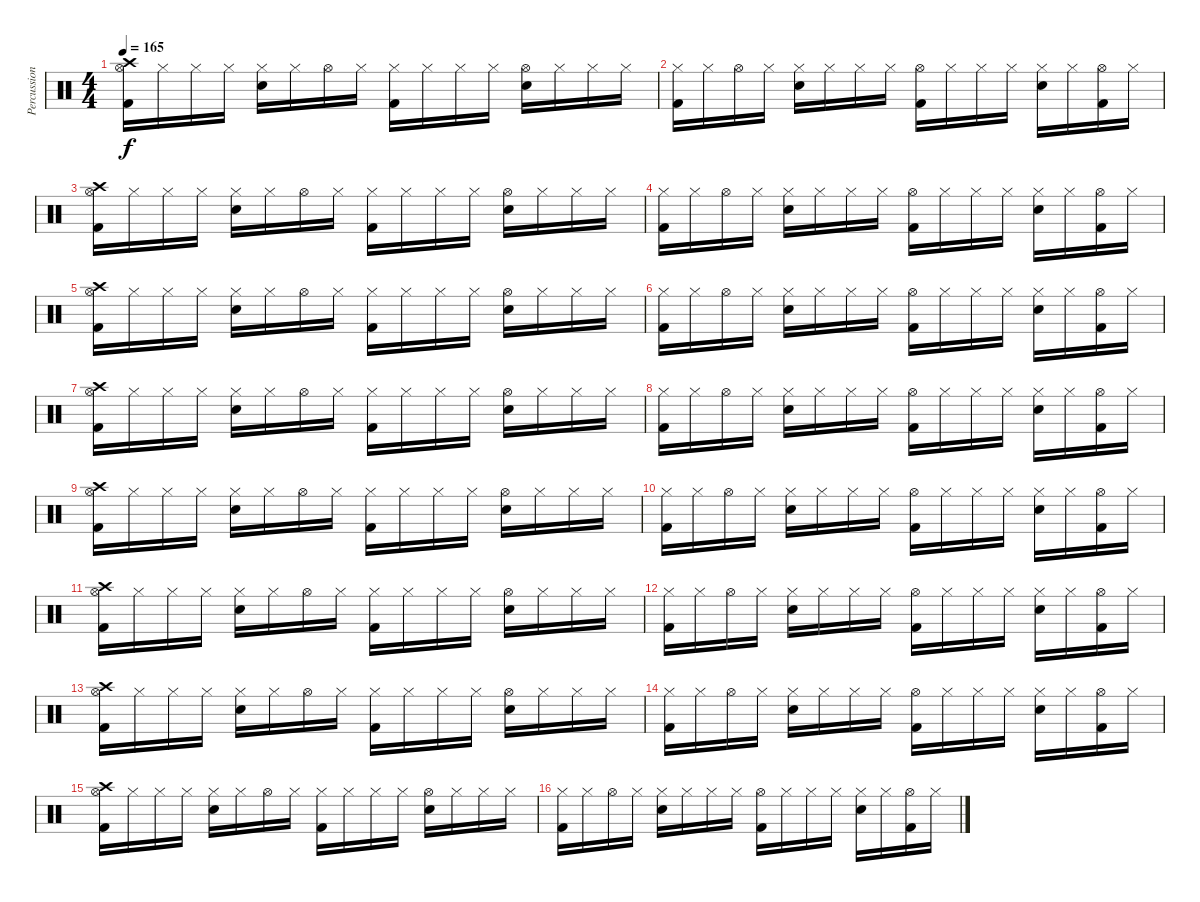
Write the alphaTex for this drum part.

\track ("Percussions" "Percussion") {instrument percussion}
\staff {score}
\articulation defaults
\ts (4 4)
\tempo 165
\clef neutral
\ks c
("Hi-Hat (open)" "Crash high (hit)" "Kick (hit) 2").16{dy f} "Hi-Hat (closed)".16 "Hi-Hat (closed)".16 "Hi-Hat (closed)".16 ("Hi-Hat (closed)" "Electric Snare (hit)").16 "Hi-Hat (closed)".16 "Hi-Hat (open)".16 "Hi-Hat (closed)".16 ("Hi-Hat (closed)" "Kick (hit) 2").16 "Hi-Hat (closed)".16 "Hi-Hat (closed)".16 "Hi-Hat (closed)".16 ("Hi-Hat (open)" "Electric Snare (hit)").16 "Hi-Hat (closed)".16 "Hi-Hat (closed)".16 "Hi-Hat (closed)".16 |
("Hi-Hat (closed)" "Kick (hit) 2").16 "Hi-Hat (closed)".16 "Hi-Hat (open)".16 "Hi-Hat (closed)".16 ("Hi-Hat (closed)" "Electric Snare (hit)").16 "Hi-Hat (closed)".16 "Hi-Hat (closed)".16 "Hi-Hat (closed)".16 ("Hi-Hat (open)" "Kick (hit) 2").16 "Hi-Hat (closed)".16 "Hi-Hat (closed)".16 "Hi-Hat (closed)".16 ("Hi-Hat (closed)" "Electric Snare (hit)").16 "Hi-Hat (closed)".16 ("Hi-Hat (open)" "Kick (hit) 2").16 "Hi-Hat (closed)".16 |
("Hi-Hat (open)" "Crash high (hit)" "Kick (hit) 2").16 "Hi-Hat (closed)".16 "Hi-Hat (closed)".16 "Hi-Hat (closed)".16 ("Hi-Hat (closed)" "Electric Snare (hit)").16 "Hi-Hat (closed)".16 "Hi-Hat (open)".16 "Hi-Hat (closed)".16 ("Hi-Hat (closed)" "Kick (hit) 2").16 "Hi-Hat (closed)".16 "Hi-Hat (closed)".16 "Hi-Hat (closed)".16 ("Hi-Hat (open)" "Electric Snare (hit)").16 "Hi-Hat (closed)".16 "Hi-Hat (closed)".16 "Hi-Hat (closed)".16 |
("Hi-Hat (closed)" "Kick (hit) 2").16 "Hi-Hat (closed)".16 "Hi-Hat (open)".16 "Hi-Hat (closed)".16 ("Hi-Hat (closed)" "Electric Snare (hit)").16 "Hi-Hat (closed)".16 "Hi-Hat (closed)".16 "Hi-Hat (closed)".16 ("Hi-Hat (open)" "Kick (hit) 2").16 "Hi-Hat (closed)".16 "Hi-Hat (closed)".16 "Hi-Hat (closed)".16 ("Hi-Hat (closed)" "Electric Snare (hit)").16 "Hi-Hat (closed)".16 ("Hi-Hat (open)" "Kick (hit) 2").16 "Hi-Hat (closed)".16 |
("Hi-Hat (open)" "Crash high (hit)" "Kick (hit) 2").16 "Hi-Hat (closed)".16 "Hi-Hat (closed)".16 "Hi-Hat (closed)".16 ("Hi-Hat (closed)" "Electric Snare (hit)").16 "Hi-Hat (closed)".16 "Hi-Hat (open)".16 "Hi-Hat (closed)".16 ("Hi-Hat (closed)" "Kick (hit) 2").16 "Hi-Hat (closed)".16 "Hi-Hat (closed)".16 "Hi-Hat (closed)".16 ("Hi-Hat (open)" "Electric Snare (hit)").16 "Hi-Hat (closed)".16 "Hi-Hat (closed)".16 "Hi-Hat (closed)".16 |
("Hi-Hat (closed)" "Kick (hit) 2").16 "Hi-Hat (closed)".16 "Hi-Hat (open)".16 "Hi-Hat (closed)".16 ("Hi-Hat (closed)" "Electric Snare (hit)").16 "Hi-Hat (closed)".16 "Hi-Hat (closed)".16 "Hi-Hat (closed)".16 ("Hi-Hat (open)" "Kick (hit) 2").16 "Hi-Hat (closed)".16 "Hi-Hat (closed)".16 "Hi-Hat (closed)".16 ("Hi-Hat (closed)" "Electric Snare (hit)").16 "Hi-Hat (closed)".16 ("Hi-Hat (open)" "Kick (hit) 2").16 "Hi-Hat (closed)".16 |
("Hi-Hat (open)" "Crash high (hit)" "Kick (hit) 2").16 "Hi-Hat (closed)".16 "Hi-Hat (closed)".16 "Hi-Hat (closed)".16 ("Hi-Hat (closed)" "Electric Snare (hit)").16 "Hi-Hat (closed)".16 "Hi-Hat (open)".16 "Hi-Hat (closed)".16 ("Hi-Hat (closed)" "Kick (hit) 2").16 "Hi-Hat (closed)".16 "Hi-Hat (closed)".16 "Hi-Hat (closed)".16 ("Hi-Hat (open)" "Electric Snare (hit)").16 "Hi-Hat (closed)".16 "Hi-Hat (closed)".16 "Hi-Hat (closed)".16 |
("Hi-Hat (closed)" "Kick (hit) 2").16 "Hi-Hat (closed)".16 "Hi-Hat (open)".16 "Hi-Hat (closed)".16 ("Hi-Hat (closed)" "Electric Snare (hit)").16 "Hi-Hat (closed)".16 "Hi-Hat (closed)".16 "Hi-Hat (closed)".16 ("Hi-Hat (open)" "Kick (hit) 2").16 "Hi-Hat (closed)".16 "Hi-Hat (closed)".16 "Hi-Hat (closed)".16 ("Hi-Hat (closed)" "Electric Snare (hit)").16 "Hi-Hat (closed)".16 ("Hi-Hat (open)" "Kick (hit) 2").16 "Hi-Hat (closed)".16 |
("Hi-Hat (open)" "Crash high (hit)" "Kick (hit) 2").16 "Hi-Hat (closed)".16 "Hi-Hat (closed)".16 "Hi-Hat (closed)".16 ("Hi-Hat (closed)" "Electric Snare (hit)").16 "Hi-Hat (closed)".16 "Hi-Hat (open)".16 "Hi-Hat (closed)".16 ("Hi-Hat (closed)" "Kick (hit) 2").16 "Hi-Hat (closed)".16 "Hi-Hat (closed)".16 "Hi-Hat (closed)".16 ("Hi-Hat (open)" "Electric Snare (hit)").16 "Hi-Hat (closed)".16 "Hi-Hat (closed)".16 "Hi-Hat (closed)".16 |
("Hi-Hat (closed)" "Kick (hit) 2").16 "Hi-Hat (closed)".16 "Hi-Hat (open)".16 "Hi-Hat (closed)".16 ("Hi-Hat (closed)" "Electric Snare (hit)").16 "Hi-Hat (closed)".16 "Hi-Hat (closed)".16 "Hi-Hat (closed)".16 ("Hi-Hat (open)" "Kick (hit) 2").16 "Hi-Hat (closed)".16 "Hi-Hat (closed)".16 "Hi-Hat (closed)".16 ("Hi-Hat (closed)" "Electric Snare (hit)").16 "Hi-Hat (closed)".16 ("Hi-Hat (open)" "Kick (hit) 2").16 "Hi-Hat (closed)".16 |
("Hi-Hat (open)" "Crash high (hit)" "Kick (hit) 2").16 "Hi-Hat (closed)".16 "Hi-Hat (closed)".16 "Hi-Hat (closed)".16 ("Hi-Hat (closed)" "Electric Snare (hit)").16 "Hi-Hat (closed)".16 "Hi-Hat (open)".16 "Hi-Hat (closed)".16 ("Hi-Hat (closed)" "Kick (hit) 2").16 "Hi-Hat (closed)".16 "Hi-Hat (closed)".16 "Hi-Hat (closed)".16 ("Hi-Hat (open)" "Electric Snare (hit)").16 "Hi-Hat (closed)".16 "Hi-Hat (closed)".16 "Hi-Hat (closed)".16 |
("Hi-Hat (closed)" "Kick (hit) 2").16 "Hi-Hat (closed)".16 "Hi-Hat (open)".16 "Hi-Hat (closed)".16 ("Hi-Hat (closed)" "Electric Snare (hit)").16 "Hi-Hat (closed)".16 "Hi-Hat (closed)".16 "Hi-Hat (closed)".16 ("Hi-Hat (open)" "Kick (hit) 2").16 "Hi-Hat (closed)".16 "Hi-Hat (closed)".16 "Hi-Hat (closed)".16 ("Hi-Hat (closed)" "Electric Snare (hit)").16 "Hi-Hat (closed)".16 ("Hi-Hat (open)" "Kick (hit) 2").16 "Hi-Hat (closed)".16 |
("Hi-Hat (open)" "Crash high (hit)" "Kick (hit) 2").16 "Hi-Hat (closed)".16 "Hi-Hat (closed)".16 "Hi-Hat (closed)".16 ("Hi-Hat (closed)" "Electric Snare (hit)").16 "Hi-Hat (closed)".16 "Hi-Hat (open)".16 "Hi-Hat (closed)".16 ("Hi-Hat (closed)" "Kick (hit) 2").16 "Hi-Hat (closed)".16 "Hi-Hat (closed)".16 "Hi-Hat (closed)".16 ("Hi-Hat (open)" "Electric Snare (hit)").16 "Hi-Hat (closed)".16 "Hi-Hat (closed)".16 "Hi-Hat (closed)".16 |
("Hi-Hat (closed)" "Kick (hit) 2").16 "Hi-Hat (closed)".16 "Hi-Hat (open)".16 "Hi-Hat (closed)".16 ("Hi-Hat (closed)" "Electric Snare (hit)").16 "Hi-Hat (closed)".16 "Hi-Hat (closed)".16 "Hi-Hat (closed)".16 ("Hi-Hat (open)" "Kick (hit) 2").16 "Hi-Hat (closed)".16 "Hi-Hat (closed)".16 "Hi-Hat (closed)".16 ("Hi-Hat (closed)" "Electric Snare (hit)").16 "Hi-Hat (closed)".16 ("Hi-Hat (open)" "Kick (hit) 2").16 "Hi-Hat (closed)".16 |
("Hi-Hat (open)" "Crash high (hit)" "Kick (hit) 2").16 "Hi-Hat (closed)".16 "Hi-Hat (closed)".16 "Hi-Hat (closed)".16 ("Hi-Hat (closed)" "Electric Snare (hit)").16 "Hi-Hat (closed)".16 "Hi-Hat (open)".16 "Hi-Hat (closed)".16 ("Hi-Hat (closed)" "Kick (hit) 2").16 "Hi-Hat (closed)".16 "Hi-Hat (closed)".16 "Hi-Hat (closed)".16 ("Hi-Hat (open)" "Electric Snare (hit)").16 "Hi-Hat (closed)".16 "Hi-Hat (closed)".16 "Hi-Hat (closed)".16 |
("Hi-Hat (closed)" "Kick (hit) 2").16 "Hi-Hat (closed)".16 "Hi-Hat (open)".16 "Hi-Hat (closed)".16 ("Hi-Hat (closed)" "Electric Snare (hit)").16 "Hi-Hat (closed)".16 "Hi-Hat (closed)".16 "Hi-Hat (closed)".16 ("Hi-Hat (open)" "Kick (hit) 2").16 "Hi-Hat (closed)".16 "Hi-Hat (closed)".16 "Hi-Hat (closed)".16 ("Hi-Hat (closed)" "Electric Snare (hit)").16 "Hi-Hat (closed)".16 ("Hi-Hat (open)" "Kick (hit) 2").16 "Hi-Hat (closed)".16
